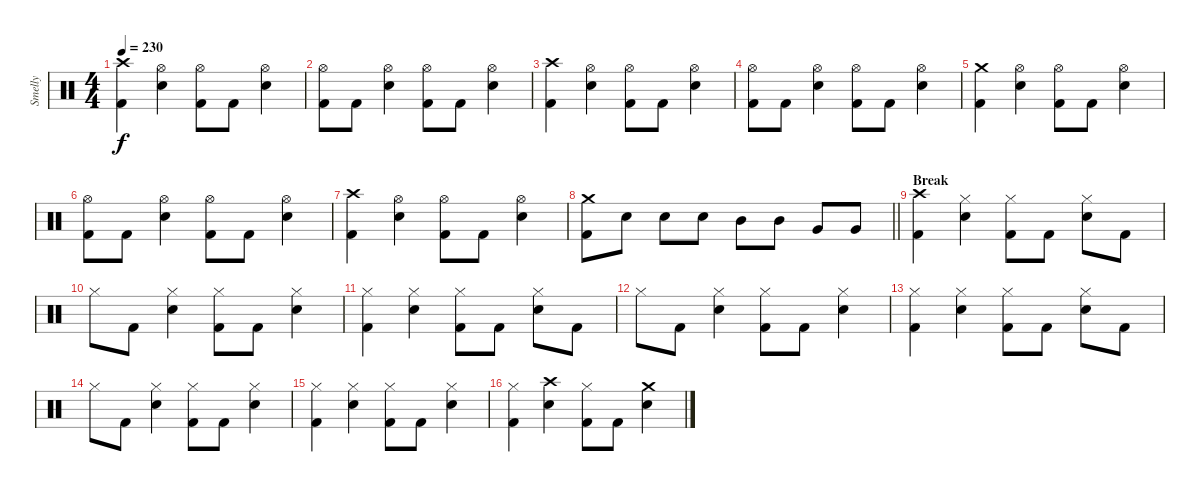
\track ("Smelly" "Smelly") {instrument percussion}
\staff {score}
\articulation defaults
\ts (4 4)
\tempo 230
\clef neutral
\ks c
("Crash high (hit)" "Kick (hit) 2").4{dy f} ("Hi-Hat (open)" "Snare (hit) 2").4 ("Hi-Hat (open)" "Kick (hit) 2").8 "Kick (hit) 2".8 ("Hi-Hat (open)" "Snare (hit) 2").4 |
("Hi-Hat (open)" "Kick (hit) 2").8 "Kick (hit) 2".8 ("Hi-Hat (open)" "Snare (hit) 2").4 ("Hi-Hat (open)" "Kick (hit) 2").8 "Kick (hit) 2".8 ("Hi-Hat (open)" "Snare (hit) 2").4 |
("Crash high (hit)" "Kick (hit) 2").4 ("Hi-Hat (open)" "Snare (hit) 2").4 ("Hi-Hat (open)" "Kick (hit) 2").8 "Kick (hit) 2".8 ("Hi-Hat (open)" "Snare (hit) 2").4 |
("Hi-Hat (open)" "Kick (hit) 2").8 "Kick (hit) 2".8 ("Hi-Hat (open)" "Snare (hit) 2").4 ("Hi-Hat (open)" "Kick (hit) 2").8 "Kick (hit) 2".8 ("Hi-Hat (open)" "Snare (hit) 2").4 |
("Crash medium (hit)" "Kick (hit) 2").4 ("Hi-Hat (open)" "Snare (hit) 2").4 ("Hi-Hat (open)" "Kick (hit) 2").8 "Kick (hit) 2".8 ("Hi-Hat (open)" "Snare (hit) 2").4 |
("Hi-Hat (open)" "Kick (hit) 2").8 "Kick (hit) 2".8 ("Hi-Hat (open)" "Snare (hit) 2").4 ("Hi-Hat (open)" "Kick (hit) 2").8 "Kick (hit) 2".8 ("Hi-Hat (open)" "Snare (hit) 2").4 |
("Crash high (hit)" "Kick (hit) 2").4 ("Hi-Hat (open)" "Snare (hit) 2").4 ("Hi-Hat (open)" "Kick (hit) 2").8 "Kick (hit) 2".8 ("Hi-Hat (open)" "Snare (hit) 2").4 |
\barLineRight lightlight
("Crash medium (hit)" "Kick (hit) 2").8 "Snare (hit) 2".8 "Snare (hit) 2".8 "Snare (hit) 2".8 "Mid Tom (hit)".8 "Mid Tom (hit)".8 "Very Low Tom (hit)".8 "Very Low Tom (hit)".8 |
\section ("" "Break ")
("Crash high (hit)" "Kick (hit) 2").4 ("Hi-Hat (closed)" "Snare (hit) 2").4 ("Hi-Hat (closed)" "Kick (hit) 2").8 "Kick (hit) 2".8 ("Hi-Hat (closed)" "Snare (hit) 2").8 "Kick (hit) 2".8 |
"Hi-Hat (closed)".8 "Kick (hit) 2".8 ("Hi-Hat (closed)" "Snare (hit) 2").4 ("Hi-Hat (closed)" "Kick (hit) 2").8 "Kick (hit) 2".8 ("Hi-Hat (closed)" "Snare (hit) 2").4 |
("Hi-Hat (closed)" "Kick (hit) 2").4 ("Hi-Hat (closed)" "Snare (hit) 2").4 ("Hi-Hat (closed)" "Kick (hit) 2").8 "Kick (hit) 2".8 ("Hi-Hat (closed)" "Snare (hit) 2").8 "Kick (hit) 2".8 |
"Hi-Hat (closed)".8 "Kick (hit) 2".8 ("Hi-Hat (closed)" "Snare (hit) 2").4 ("Hi-Hat (closed)" "Kick (hit) 2").8 "Kick (hit) 2".8 ("Hi-Hat (closed)" "Snare (hit) 2").4 |
("Hi-Hat (closed)" "Kick (hit) 2").4 ("Hi-Hat (closed)" "Snare (hit) 2").4 ("Hi-Hat (closed)" "Kick (hit) 2").8 "Kick (hit) 2".8 ("Hi-Hat (closed)" "Snare (hit) 2").8 "Kick (hit) 2".8 |
"Hi-Hat (closed)".8 "Kick (hit) 2".8 ("Hi-Hat (closed)" "Snare (hit) 2").4 ("Hi-Hat (closed)" "Kick (hit) 2").8 "Kick (hit) 2".8 ("Hi-Hat (closed)" "Snare (hit) 2").4 |
("Hi-Hat (closed)" "Kick (hit) 2").4 ("Hi-Hat (closed)" "Snare (hit) 2").4 ("Hi-Hat (closed)" "Kick (hit) 2").8 "Kick (hit) 2".8 ("Hi-Hat (closed)" "Snare (hit) 2").4 |
("Hi-Hat (closed)" "Kick (hit) 2").4 ("Crash high (hit)" "Snare (hit) 2").4 ("Hi-Hat (closed)" "Kick (hit) 2").8 "Kick (hit) 2".8 ("Crash medium (hit)" "Snare (hit) 2").4
